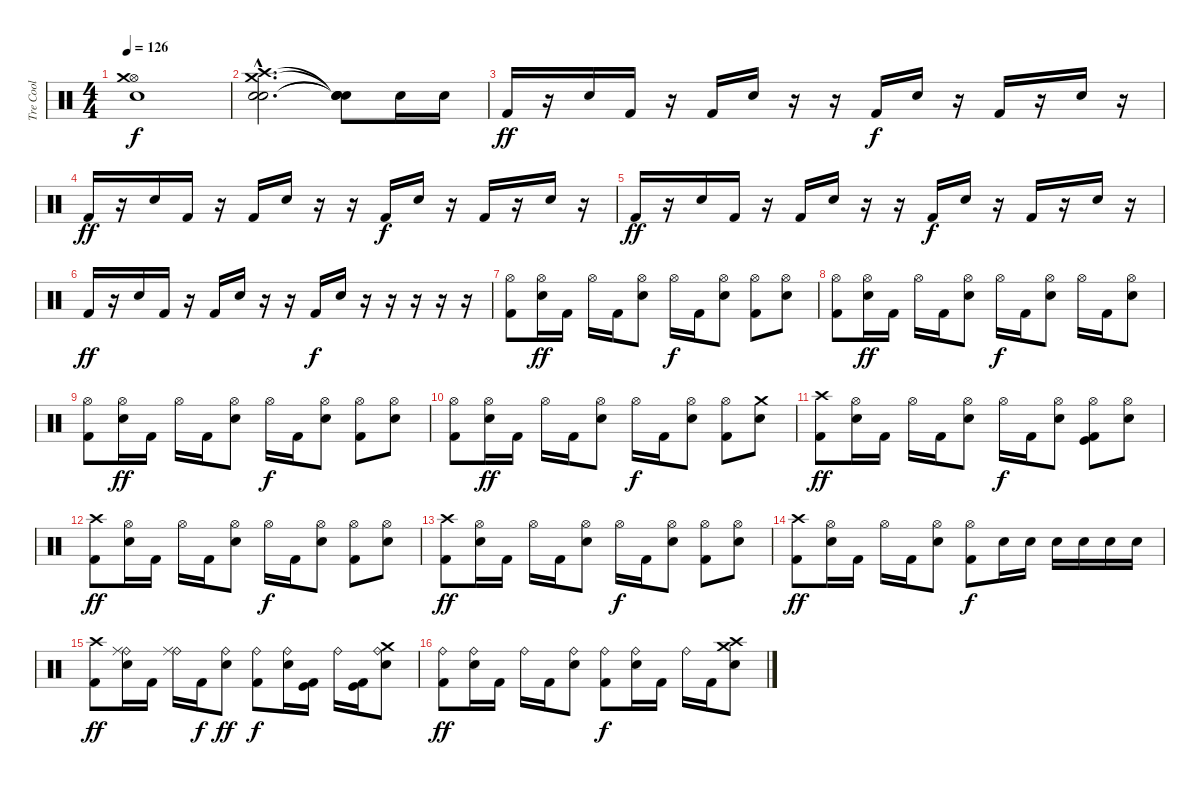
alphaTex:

\track ("Tre Cool" "Tre Cool") {instrument percussion}
\staff {score}
\articulation defaults
\ts (4 4)
\tempo 126
\clef neutral
\ks c
("Hi-Hat (open)" "Crash medium (hit)" "Snare (hit) 2").1{dy f} |
("Crash high (hit)"{hac} "Crash medium (hit)"{hac} "Electric Snare (hit)"{hac} "Snare (hit) 2"{hac}).2{d} ("Snare (hit)"{t} "Snare (hit)"{t} "Snare (hit)"{t} "Snare (hit)"{t}).8 "Snare (hit) 2".16 "Snare (hit) 2".16 |
"Kick (hit) 2".16{dy ff} r.16 "Snare (hit) 2".16 "Kick (hit) 2".16 r.16 "Kick (hit) 2".16 "Snare (hit) 2".16 r.16 r.16 "Kick (hit) 2".16{dy f} "Snare (hit) 2".16 r.16 "Kick (hit) 2".16 r.16 "Snare (hit) 2".16 r.16 |
"Kick (hit) 2".16{dy ff} r.16 "Snare (hit) 2".16 "Kick (hit) 2".16 r.16 "Kick (hit) 2".16 "Snare (hit) 2".16 r.16 r.16 "Kick (hit) 2".16{dy f} "Snare (hit) 2".16 r.16 "Kick (hit) 2".16 r.16 "Snare (hit) 2".16 r.16 |
"Kick (hit) 2".16{dy ff} r.16 "Snare (hit) 2".16 "Kick (hit) 2".16 r.16 "Kick (hit) 2".16 "Snare (hit) 2".16 r.16 r.16 "Kick (hit) 2".16{dy f} "Snare (hit) 2".16 r.16 "Kick (hit) 2".16 r.16 "Snare (hit) 2".16 r.16 |
"Kick (hit) 2".16{dy ff} r.16 "Snare (hit) 2".16 "Kick (hit) 2".16 r.16 "Kick (hit) 2".16 "Snare (hit) 2".16 r.16 r.16 "Kick (hit) 2".16{dy f} "Snare (hit) 2".16 r.16 r.16 r.16 r.16 r.16 |
("Hi-Hat (open)" "Kick (hit) 2").8 ("Hi-Hat (open)" "Snare (hit) 2").16{dy ff} "Kick (hit) 2".16 "Hi-Hat (open)".16 "Kick (hit) 2".16 ("Hi-Hat (open)" "Snare (hit) 2").8 "Hi-Hat (open)".16{dy f} "Kick (hit) 2".16 ("Hi-Hat (open)" "Snare (hit) 2").8 ("Kick (hit) 2" "Hi-Hat (open)").8 ("Snare (hit) 2" "Hi-Hat (open)").8 |
("Hi-Hat (open)" "Kick (hit) 2").8 ("Hi-Hat (open)" "Snare (hit) 2").16{dy ff} "Kick (hit) 2".16 "Hi-Hat (open)".16 "Kick (hit) 2".16 ("Hi-Hat (open)" "Snare (hit) 2").8 "Hi-Hat (open)".16{dy f} "Kick (hit) 2".16 ("Hi-Hat (open)" "Snare (hit) 2").8 "Hi-Hat (open)".16 "Kick (hit) 2".16 ("Hi-Hat (open)" "Snare (hit) 2").8 |
("Hi-Hat (open)" "Kick (hit) 2").8 ("Hi-Hat (open)" "Snare (hit) 2").16{dy ff} "Kick (hit) 2".16 "Hi-Hat (open)".16 "Kick (hit) 2".16 ("Hi-Hat (open)" "Snare (hit) 2").8 "Hi-Hat (open)".16{dy f} "Kick (hit) 2".16 ("Hi-Hat (open)" "Snare (hit) 2").8 ("Kick (hit) 2" "Hi-Hat (open)").8 ("Snare (hit) 2" "Hi-Hat (open)").8 |
("Hi-Hat (open)" "Kick (hit) 2").8 ("Hi-Hat (open)" "Snare (hit) 2").16{dy ff} "Kick (hit) 2".16 "Hi-Hat (open)".16 "Kick (hit) 2".16 ("Hi-Hat (open)" "Snare (hit) 2").8 "Hi-Hat (open)".16{dy f} "Kick (hit) 2".16 ("Hi-Hat (open)" "Snare (hit) 2").8 ("Kick (hit) 2" "Hi-Hat (open)").8 ("Crash medium (hit)" "Snare (hit) 2").8 |
("Crash high (hit)" "Kick (hit) 2").8{dy ff} ("Hi-Hat (open)" "Snare (hit) 2").16 "Kick (hit) 2".16 "Hi-Hat (open)".16 "Kick (hit) 2".16 ("Hi-Hat (open)" "Snare (hit) 2").8 "Hi-Hat (open)".16{dy f} "Kick (hit) 2".16 ("Hi-Hat (open)" "Snare (hit) 2").8 ("Kick (hit)" "Kick (hit) 2" "Hi-Hat (open)").8 ("Snare (hit) 2" "Hi-Hat (open)").8 |
("Crash high (hit)" "Kick (hit) 2").8{dy ff} ("Hi-Hat (open)" "Snare (hit) 2").16 "Kick (hit) 2".16 "Hi-Hat (open)".16 "Kick (hit) 2".16 ("Hi-Hat (open)" "Snare (hit) 2").8 "Hi-Hat (open)".16{dy f} "Kick (hit) 2".16 ("Hi-Hat (open)" "Snare (hit) 2").8 ("Hi-Hat (open)" "Kick (hit) 2").8 ("Hi-Hat (open)" "Snare (hit) 2").8 |
("Crash high (hit)" "Kick (hit) 2").8{dy ff} ("Hi-Hat (open)" "Snare (hit) 2").16 "Kick (hit) 2".16 "Hi-Hat (open)".16 "Kick (hit) 2".16 ("Hi-Hat (open)" "Snare (hit) 2").8 "Hi-Hat (open)".16{dy f} "Kick (hit) 2".16 ("Hi-Hat (open)" "Snare (hit) 2").8 ("Hi-Hat (open)" "Kick (hit) 2").8 ("Hi-Hat (open)" "Snare (hit) 2").8 |
("Crash high (hit)" "Kick (hit) 2").8{dy ff} ("Hi-Hat (open)" "Snare (hit) 2").16 "Kick (hit) 2".16 "Hi-Hat (open)".16 "Kick (hit) 2".16 ("Hi-Hat (open)" "Snare (hit) 2").8 ("Hi-Hat (open)" "Kick (hit) 2").8{dy f} "Snare (hit) 2".16 "Snare (hit) 2".16 "Snare (hit) 2".16 "Snare (hit) 2".16 "Snare (hit) 2".16 "Snare (hit) 2".16 |
("Crash high (hit)" "Kick (hit) 2").8{dy ff} ("Ride (bell)" "Ride (middle)" "Snare (hit) 2").16 "Kick (hit) 2".16 ("Ride (bell)" "Ride (middle)").16 "Kick (hit) 2".16{dy f} ("Snare (hit) 2" "Ride (bell)").8{dy ff} ("Ride (bell)" "Kick (hit) 2").8{dy f} ("Ride (bell)" "Snare (hit) 2").16 ("Kick (hit)" "Kick (hit) 2").16 "Ride (bell)".16 ("Kick (hit)" "Kick (hit) 2").16 ("Ride (bell)" "Crash medium (hit)" "Snare (hit) 2").8 |
("Ride (bell)" "Kick (hit) 2").8{dy ff} ("Ride (bell)" "Snare (hit) 2").16 "Kick (hit) 2".16 "Ride (bell)".16 "Kick (hit) 2".16 ("Ride (bell)" "Snare (hit) 2").8 ("Ride (bell)" "Kick (hit) 2").8{dy f} ("Ride (bell)" "Snare (hit) 2").16 "Kick (hit) 2".16 "Ride (bell)".16 "Kick (hit) 2".16 ("Crash high (hit)" "Crash medium (hit)" "Snare (hit) 2").8
